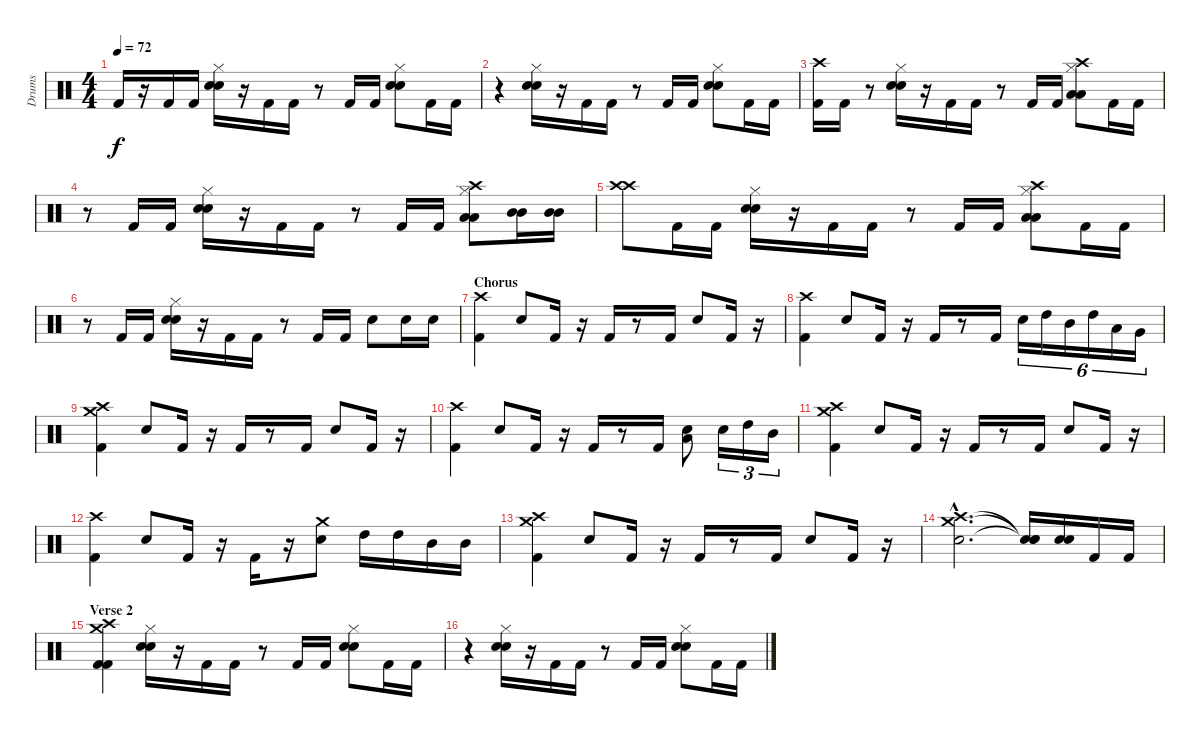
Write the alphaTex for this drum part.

\track ("Drums" "Drums") {instrument percussion}
\staff {score}
\articulation defaults
\ts (4 4)
\tempo 72
\clef neutral
\ks c "Kick (hit) 2".16{dy f}
r.16 "Kick (hit) 2".16 "Kick (hit) 2".16 ("Hi-Hat (closed)" "Electric Snare (hit)" "Electric Snare (hit)").16 r.16 "Kick (hit) 2".16 "Kick (hit) 2".16 r.8 "Kick (hit) 2".16 "Kick (hit) 2".16 ("Hi-Hat (closed)" "Electric Snare (hit)" "Electric Snare (hit)").8 "Kick (hit) 2".16 "Kick (hit) 2".16 |
r.4 ("Hi-Hat (closed)" "Electric Snare (hit)" "Electric Snare (hit)").16 r.16 "Kick (hit) 2".16 "Kick (hit) 2".16 r.8 "Kick (hit) 2".16 "Kick (hit) 2".16 ("Hi-Hat (closed)" "Electric Snare (hit)" "Electric Snare (hit)").8 "Kick (hit) 2".16 "Kick (hit) 2".16 |
("Crash high (hit)" "Kick (hit) 2").16 "Kick (hit) 2".16 r.8 ("Hi-Hat (closed)" "Electric Snare (hit)" "Electric Snare (hit)").16 r.16 "Kick (hit) 2".16 "Kick (hit) 2".16 r.8 "Kick (hit) 2".16 "Kick (hit) 2".16 ("Crash high (hit)" "Hi-Hat (closed)" "Low Tom (hit)" "Low Tom (hit)").8 "Kick (hit) 2".16 "Kick (hit) 2".16 |
r.8 "Kick (hit) 2".16 "Kick (hit) 2".16 ("Hi-Hat (closed)" "Electric Snare (hit)" "Electric Snare (hit)").16 r.16 "Kick (hit) 2".16 "Kick (hit) 2".16 r.8 "Kick (hit) 2".16 "Kick (hit) 2".16 ("Hi-Hat (closed)" "Crash high (hit)" "Low Tom (hit)" "Low Tom (hit)").8 ("Mid Tom (hit)" "Mid Tom (hit)").16 ("Mid Tom (hit)" "Mid Tom (hit)").16 |
("Crash high (hit)" "Crash high (hit)").8 "Kick (hit) 2".16 "Kick (hit) 2".16 ("Hi-Hat (closed)" "Electric Snare (hit)" "Electric Snare (hit)").16 r.16 "Kick (hit) 2".16 "Kick (hit) 2".16 r.8 "Kick (hit) 2".16 "Kick (hit) 2".16 ("Crash high (hit)" "Hi-Hat (closed)" "Low Tom (hit)" "Low Tom (hit)").8 "Kick (hit) 2".16 "Kick (hit) 2".16 |
r.8 "Kick (hit) 2".16 "Kick (hit) 2".16 ("Hi-Hat (closed)" "Electric Snare (hit)" "Electric Snare (hit)").16 r.16 "Kick (hit) 2".16 "Kick (hit) 2".16 r.8 "Kick (hit) 2".16 "Kick (hit) 2".16 "Electric Snare (hit)".8 "Electric Snare (hit)".16 "Electric Snare (hit)".16 |
\section ("" "Chorus")
("Crash high (hit)" "Kick (hit) 2").4 "Electric Snare (hit)".8 "Kick (hit) 2".16 r.16 "Kick (hit) 2".16 r.8 "Kick (hit) 2".16 "Electric Snare (hit)".8 "Kick (hit) 2".16 r.16 |
("Crash high (hit)" "Kick (hit) 2").4 "Electric Snare (hit)".8 "Kick (hit) 2".16 r.16 "Kick (hit) 2".16 r.8 "Kick (hit) 2".16 "Electric Snare (hit)".16{tu (6 4)} "High Tom (hit)".16{tu (6 4)} "Mid Tom (hit)".16{tu (6 4)} "High Tom (hit)".16{tu (6 4)} "Low Tom (hit)".16{tu (6 4)} "Very Low Tom (hit)".16{tu (6 4)} |
("Crash medium (hit)" "Crash high (hit)" "Kick (hit) 2").4 "Electric Snare (hit)".8 "Kick (hit) 2".16 r.16 "Kick (hit) 2".16 r.8 "Kick (hit) 2".16 "Electric Snare (hit)".8 "Kick (hit) 2".16 r.16 |
("Crash high (hit)" "Kick (hit) 2").4 "Electric Snare (hit)".8 "Kick (hit) 2".16 r.16 "Kick (hit) 2".16 r.8 "Kick (hit) 2".16 ("Low Tom (hit)" "Electric Snare (hit)").8 "Electric Snare (hit)".16{tu (3 2)} "High Tom (hit)".16{tu (3 2)} "Mid Tom (hit)".16{tu (3 2)} |
("Crash medium (hit)" "Crash high (hit)" "Kick (hit) 2").4 "Electric Snare (hit)".8 "Kick (hit) 2".16 r.16 "Kick (hit) 2".16 r.8 "Kick (hit) 2".16 "Electric Snare (hit)".8 "Kick (hit) 2".16 r.16 |
("Crash high (hit)" "Kick (hit) 2").4 "Electric Snare (hit)".8 "Kick (hit) 2".16 r.16 "Kick (hit) 2".16 r.16 ("Crash medium (hit)" "Electric Snare (hit)").8 "High Tom (hit)".16 "High Tom (hit)".16 "Mid Tom (hit)".16 "Mid Tom (hit)".16 |
("Crash medium (hit)" "Crash high (hit)" "Kick (hit) 2").4 "Electric Snare (hit)".8 "Kick (hit) 2".16 r.16 "Kick (hit) 2".16 r.8 "Kick (hit) 2".16 "Electric Snare (hit)".8 "Kick (hit) 2".16 r.16 |
("Crash high (hit)"{hac} "Crash medium (hit)"{hac} "Electric Snare (hit)"{hac}).2{d} ("Snare (hit)"{t} "Snare (hit)"{t} "Snare (hit)"{t}).16 ("Electric Snare (hit)" "Electric Snare (hit)").16 "Kick (hit) 2".16 "Kick (hit) 2".16 |
\section ("" "Verse 2")
("Crash high (hit)" "Crash medium (hit)" "Kick (hit) 2" "Kick (hit) 2").4 ("Hi-Hat (closed)" "Electric Snare (hit)" "Electric Snare (hit)").16 r.16 "Kick (hit) 2".16 "Kick (hit) 2".16 r.8 "Kick (hit) 2".16 "Kick (hit) 2".16 ("Hi-Hat (closed)" "Electric Snare (hit)" "Electric Snare (hit)").8 "Kick (hit) 2".16 "Kick (hit) 2".16 |
r.4 ("Hi-Hat (closed)" "Electric Snare (hit)" "Electric Snare (hit)").16 r.16 "Kick (hit) 2".16 "Kick (hit) 2".16 r.8 "Kick (hit) 2".16 "Kick (hit) 2".16 ("Hi-Hat (closed)" "Electric Snare (hit)" "Electric Snare (hit)").8 "Kick (hit) 2".16 "Kick (hit) 2".16
